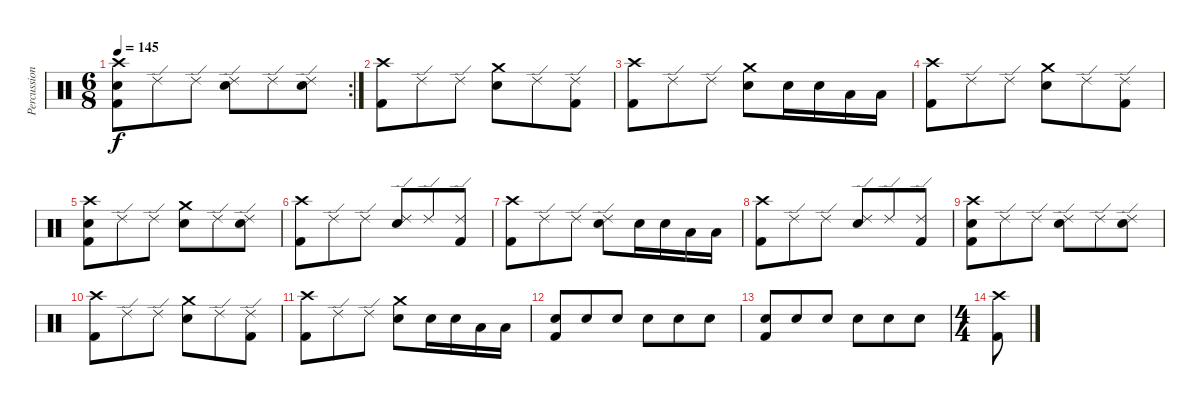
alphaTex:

\track ("Percussion" "Percussion") {instrument percussion}
\staff {score}
\articulation defaults
\rc 2
\ts (6 8)
\tempo 145
\clef neutral
\ks c
("Crash high (hit)" "Electric Snare (hit)" "Kick (hit) 2").8{dy f} "Ride (edge) 2".8 "Ride (edge) 2".8 ("Ride (edge) 2" "Electric Snare (hit)").8 "Ride (edge) 2".8 ("Ride (edge) 2" "Electric Snare (hit)").8 |
("Crash high (hit)" "Kick (hit) 2").8 "Ride (edge) 2".8 "Ride (edge) 2".8 ("Crash medium (hit)" "Electric Snare (hit)").8 "Ride (edge) 2".8 ("Ride (edge) 2" "Kick (hit) 2").8 |
("Crash high (hit)" "Kick (hit) 2").8 "Ride (edge) 2".8 "Ride (edge) 2".8 ("Crash medium (hit)" "Electric Snare (hit)").8 "Electric Snare (hit)".16 "Electric Snare (hit)".16 "Low Tom (hit)".16 "Low Tom (hit)".16 |
("Crash high (hit)" "Kick (hit) 2").8 "Ride (edge) 2".8 "Ride (edge) 2".8 ("Crash medium (hit)" "Electric Snare (hit)").8 "Ride (edge) 2".8 ("Ride (edge) 2" "Kick (hit) 2").8 |
("Crash high (hit)" "Electric Snare (hit)" "Kick (hit) 2").8 "Ride (edge) 2".8 "Ride (edge) 2".8 ("Crash medium (hit)" "Electric Snare (hit)").8 "Ride (edge) 2".8 ("Ride (edge) 2" "Electric Snare (hit)").8 |
("Crash high (hit)" "Kick (hit) 2").8 "Ride (edge) 2".8 "Ride (edge) 2".8 ("Ride (edge) 2" "Electric Snare (hit)").8 "Ride (edge) 2".8 ("Ride (edge) 2" "Kick (hit) 2").8 |
("Crash high (hit)" "Kick (hit) 2").8 "Ride (edge) 2".8 "Ride (edge) 2".8 ("Ride (edge) 2" "Electric Snare (hit)").8 "Electric Snare (hit)".16 "Electric Snare (hit)".16 "Low Tom (hit)".16 "Low Tom (hit)".16 |
("Crash high (hit)" "Kick (hit) 2").8 "Ride (edge) 2".8 "Ride (edge) 2".8 ("Ride (edge) 2" "Electric Snare (hit)").8 "Ride (edge) 2".8 ("Ride (edge) 2" "Kick (hit) 2").8 |
("Crash high (hit)" "Electric Snare (hit)" "Kick (hit) 2").8 "Ride (edge) 2".8 "Ride (edge) 2".8 ("Ride (edge) 2" "Electric Snare (hit)").8 "Ride (edge) 2".8 ("Ride (edge) 2" "Electric Snare (hit)").8 |
("Crash high (hit)" "Kick (hit) 2").8 "Ride (edge) 2".8 "Ride (edge) 2".8 ("Crash medium (hit)" "Electric Snare (hit)").8 "Ride (edge) 2".8 ("Ride (edge) 2" "Kick (hit) 2").8 |
("Crash high (hit)" "Kick (hit) 2").8 "Ride (edge) 2".8 "Ride (edge) 2".8 ("Crash medium (hit)" "Electric Snare (hit)").8 "Electric Snare (hit)".16 "Electric Snare (hit)".16 "Low Tom (hit)".16 "Low Tom (hit)".16 |
("Electric Snare (hit)" "Kick (hit) 2").8 "Electric Snare (hit)".8 "Electric Snare (hit)".8 "Electric Snare (hit)".8 "Electric Snare (hit)".8 "Electric Snare (hit)".8 |
("Electric Snare (hit)" "Kick (hit) 2").8 "Electric Snare (hit)".8 "Electric Snare (hit)".8 "Electric Snare (hit)".8 "Electric Snare (hit)".8 "Electric Snare (hit)".8 |
\ts (4 4)
("Crash high (hit)" "Kick (hit) 2").8
